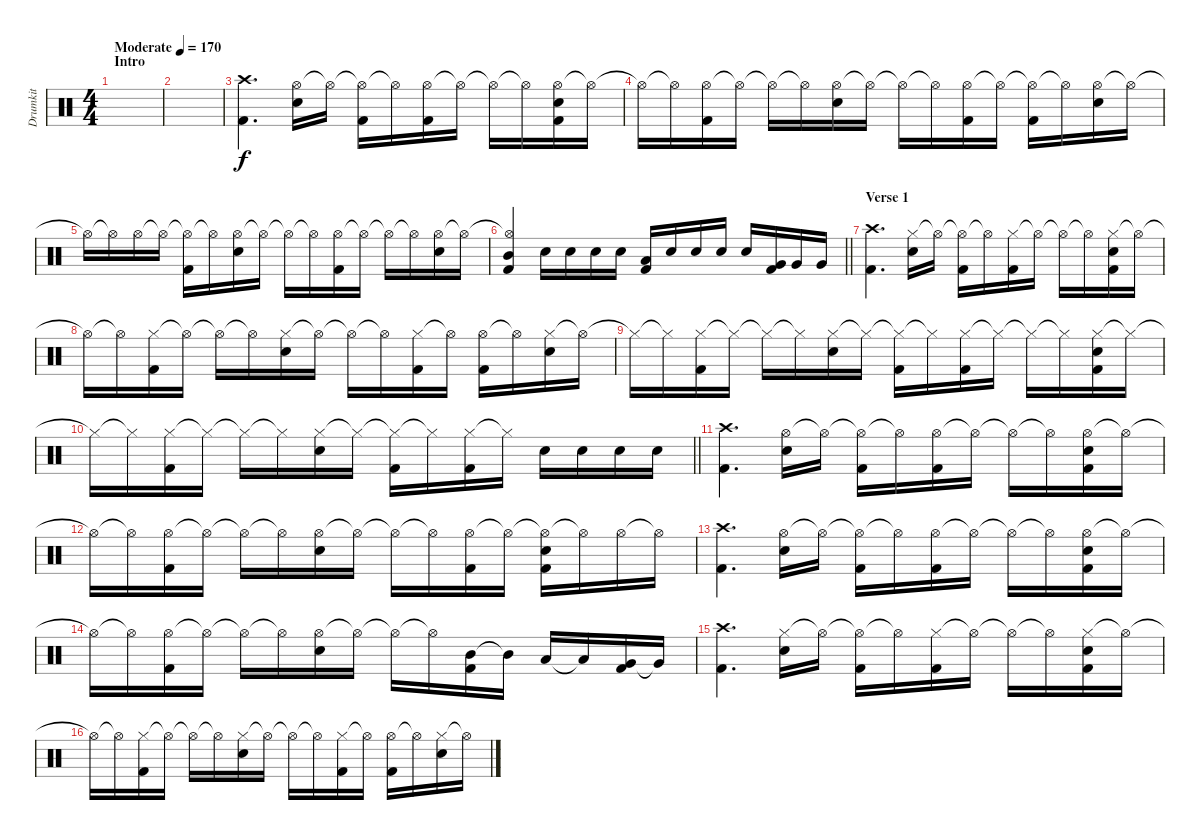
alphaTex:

\track ("Drumkit" "Drumkit") {instrument percussion}
\staff {score}
\articulation defaults
\ts (4 4)
\section ("" "Intro")
\tempo (170 "Moderate")
\clef neutral
\ks c
|
|
("Crash high (hit)" "Kick (hit) 2").4{d} ("Hi-Hat (open)" "Snare (hit) 2").16 "Hi-Hat (open)"{t}.16 ("Hi-Hat (open)"{t} "Kick (hit) 2").16 "Hi-Hat (open)"{t}.16 ("Hi-Hat (open)" "Kick (hit) 2").16 "Hi-Hat (open)"{t}.16 "Hi-Hat (open)"{t}.16 "Hi-Hat (open)"{t}.16 ("Hi-Hat (open)" "Snare (hit) 2" "Kick (hit) 2").16 "Hi-Hat (open)"{t}.16 |
"Hi-Hat (open)"{t}.16 "Hi-Hat (open)"{t}.16 ("Hi-Hat (open)" "Kick (hit) 2").16 "Hi-Hat (open)"{t}.16 "Hi-Hat (open)"{t}.16 "Hi-Hat (open)"{t}.16 ("Hi-Hat (open)" "Snare (hit) 2").16 "Hi-Hat (open)"{t}.16 "Hi-Hat (open)"{t}.16 "Hi-Hat (open)"{t}.16 ("Hi-Hat (open)" "Kick (hit) 2").16 "Hi-Hat (open)"{t}.16 ("Hi-Hat (open)"{t} "Kick (hit) 2").16 "Hi-Hat (open)"{t}.16 ("Hi-Hat (open)" "Snare (hit) 2").16 "Hi-Hat (open)"{t}.16 |
"Hi-Hat (open)"{t}.16 "Hi-Hat (open)"{t}.16 "Hi-Hat (open)".16 "Hi-Hat (open)"{t}.16 ("Hi-Hat (open)"{t} "Kick (hit) 2").16 "Hi-Hat (open)"{t}.16 ("Hi-Hat (open)" "Snare (hit) 2").16 "Hi-Hat (open)"{t}.16 "Hi-Hat (open)"{t}.16 "Hi-Hat (open)"{t}.16 ("Hi-Hat (open)" "Kick (hit) 2").16 "Hi-Hat (open)"{t}.16 "Hi-Hat (open)"{t}.16 "Hi-Hat (open)"{t}.16 ("Hi-Hat (open)" "Snare (hit) 2").16 "Hi-Hat (open)"{t}.16 |
\barLineRight lightlight
("Hi-Hat (open)"{t} "Mid Tom (hit)" "Kick (hit) 2").4 "Snare (hit) 2".16 "Snare (hit) 2".16 "Snare (hit) 2".16 "Snare (hit) 2".16 ("Low Tom (hit)" "Kick (hit) 2").16 "Snare (hit) 2".16 "Snare (hit) 2".16 "Snare (hit) 2".16 "Snare (hit) 2".16 ("Very Low Tom (hit)" "Kick (hit) 2").16 "Very Low Tom (hit)".16 "Very Low Tom (hit)".16 |
\section ("" "Verse 1")
("Crash high (hit)" "Kick (hit) 2").4{d} ("Hi-Hat (closed)" "Snare (hit) 2").16 "Hi-Hat (open)"{t}.16 ("Hi-Hat (open)"{t} "Kick (hit) 2").16 "Hi-Hat (open)"{t}.16 ("Hi-Hat (closed)" "Kick (hit) 2").16 "Hi-Hat (open)"{t}.16 "Hi-Hat (open)"{t}.16 "Hi-Hat (open)"{t}.16 ("Hi-Hat (closed)" "Snare (hit) 2" "Kick (hit) 2").16 "Hi-Hat (open)"{t}.16 |
"Hi-Hat (open)"{t}.16 "Hi-Hat (open)"{t}.16 ("Hi-Hat (closed)" "Kick (hit) 2").16 "Hi-Hat (open)"{t}.16 "Hi-Hat (open)"{t}.16 "Hi-Hat (open)"{t}.16 ("Hi-Hat (closed)" "Snare (hit) 2").16 "Hi-Hat (open)"{t}.16 "Hi-Hat (open)"{t}.16 "Hi-Hat (open)"{t}.16 ("Hi-Hat (closed)" "Kick (hit) 2").16 "Hi-Hat (open)"{t}.16 ("Hi-Hat (open)" "Kick (hit) 2").16 "Hi-Hat (open)"{t}.16 ("Hi-Hat (closed)" "Snare (hit) 2").16 "Hi-Hat (open)"{t}.16 |
"Hi-Hat (closed)"{t}.16 "Hi-Hat (closed)"{t}.16 ("Hi-Hat (closed)" "Kick (hit) 2").16 "Hi-Hat (closed)"{t}.16 "Hi-Hat (closed)"{t}.16 "Hi-Hat (closed)"{t}.16 ("Hi-Hat (closed)" "Snare (hit) 2").16 "Hi-Hat (closed)"{t}.16 ("Hi-Hat (closed)"{t} "Kick (hit) 2").16 "Hi-Hat (closed)"{t}.16 ("Hi-Hat (closed)" "Kick (hit) 2").16 "Hi-Hat (closed)"{t}.16 "Hi-Hat (closed)"{t}.16 "Hi-Hat (closed)"{t}.16 ("Hi-Hat (closed)" "Snare (hit) 2" "Kick (hit) 2").16 "Hi-Hat (closed)"{t}.16 |
\barLineRight lightlight "Hi-Hat (closed)"{t}.16 "Hi-Hat (closed)"{t}.16
("Hi-Hat (closed)" "Kick (hit) 2").16 "Hi-Hat (closed)"{t}.16 "Hi-Hat (closed)"{t}.16 "Hi-Hat (closed)"{t}.16 ("Hi-Hat (closed)" "Snare (hit) 2").16 "Hi-Hat (closed)"{t}.16 ("Hi-Hat (closed)"{t} "Kick (hit) 2").16 "Hi-Hat (closed)"{t}.16 ("Hi-Hat (closed)" "Kick (hit) 2").16 "Hi-Hat (closed)"{t}.16 "Snare (hit) 2".16 "Snare (hit) 2".16 "Snare (hit) 2".16 "Snare (hit) 2".16 |
("Crash high (hit)" "Kick (hit) 2").4{d} ("Hi-Hat (open)" "Snare (hit) 2").16 "Hi-Hat (open)"{t}.16 ("Hi-Hat (open)"{t} "Kick (hit) 2").16 "Hi-Hat (open)"{t}.16 ("Hi-Hat (open)" "Kick (hit) 2").16 "Hi-Hat (open)"{t}.16 "Hi-Hat (open)"{t}.16 "Hi-Hat (open)"{t}.16 ("Hi-Hat (open)" "Snare (hit) 2" "Kick (hit) 2").16 "Hi-Hat (open)"{t}.16 |
"Hi-Hat (open)"{t}.16 "Hi-Hat (open)"{t}.16 ("Hi-Hat (open)" "Kick (hit) 2").16 "Hi-Hat (open)"{t}.16 "Hi-Hat (open)"{t}.16 "Hi-Hat (open)"{t}.16 ("Hi-Hat (open)" "Snare (hit) 2").16 "Hi-Hat (open)"{t}.16 "Hi-Hat (open)"{t}.16 "Hi-Hat (open)"{t}.16 ("Hi-Hat (open)" "Kick (hit) 2").16 "Hi-Hat (open)"{t}.16 ("Hi-Hat (open)"{t} "Snare (hit) 2" "Kick (hit) 2").16 "Hi-Hat (open)"{t}.16 "Hi-Hat (open)".16 "Hi-Hat (open)"{t}.16 |
("Crash high (hit)" "Kick (hit) 2").4{d} ("Hi-Hat (open)" "Snare (hit) 2").16 "Hi-Hat (open)"{t}.16 ("Hi-Hat (open)"{t} "Kick (hit) 2").16 "Hi-Hat (open)"{t}.16 ("Hi-Hat (open)" "Kick (hit) 2").16 "Hi-Hat (open)"{t}.16 "Hi-Hat (open)"{t}.16 "Hi-Hat (open)"{t}.16 ("Hi-Hat (open)" "Snare (hit) 2" "Kick (hit) 2").16 "Hi-Hat (open)"{t}.16 |
"Hi-Hat (open)"{t}.16 "Hi-Hat (open)"{t}.16 ("Hi-Hat (open)" "Kick (hit) 2").16 "Hi-Hat (open)"{t}.16 "Hi-Hat (open)"{t}.16 "Hi-Hat (open)"{t}.16 ("Hi-Hat (open)" "Snare (hit) 2").16 "Hi-Hat (open)"{t}.16 "Hi-Hat (open)"{t}.16 "Hi-Hat (open)"{t}.16 ("Mid Tom (hit)" "Kick (hit) 2").16 "Mid Tom (hit)"{t}.16 "Low Tom (hit)".16 "Low Tom (hit)"{t}.16 ("Very Low Tom (hit)" "Kick (hit) 2").16 "Very Low Tom (hit)"{t}.16 |
("Crash high (hit)" "Kick (hit) 2").4{d} ("Hi-Hat (closed)" "Snare (hit) 2").16 "Hi-Hat (open)"{t}.16 ("Hi-Hat (open)"{t} "Kick (hit) 2").16 "Hi-Hat (open)"{t}.16 ("Hi-Hat (closed)" "Kick (hit) 2").16 "Hi-Hat (open)"{t}.16 "Hi-Hat (open)"{t}.16 "Hi-Hat (open)"{t}.16 ("Hi-Hat (closed)" "Snare (hit) 2" "Kick (hit) 2").16 "Hi-Hat (open)"{t}.16 |
"Hi-Hat (open)"{t}.16 "Hi-Hat (open)"{t}.16 ("Hi-Hat (closed)" "Kick (hit) 2").16 "Hi-Hat (open)"{t}.16 "Hi-Hat (open)"{t}.16 "Hi-Hat (open)"{t}.16 ("Hi-Hat (closed)" "Snare (hit) 2").16 "Hi-Hat (open)"{t}.16 "Hi-Hat (open)"{t}.16 "Hi-Hat (open)"{t}.16 ("Hi-Hat (closed)" "Kick (hit) 2").16 "Hi-Hat (open)"{t}.16 ("Hi-Hat (open)" "Kick (hit) 2").16 "Hi-Hat (open)"{t}.16 ("Hi-Hat (closed)" "Snare (hit) 2").16 "Hi-Hat (open)"{t}.16
